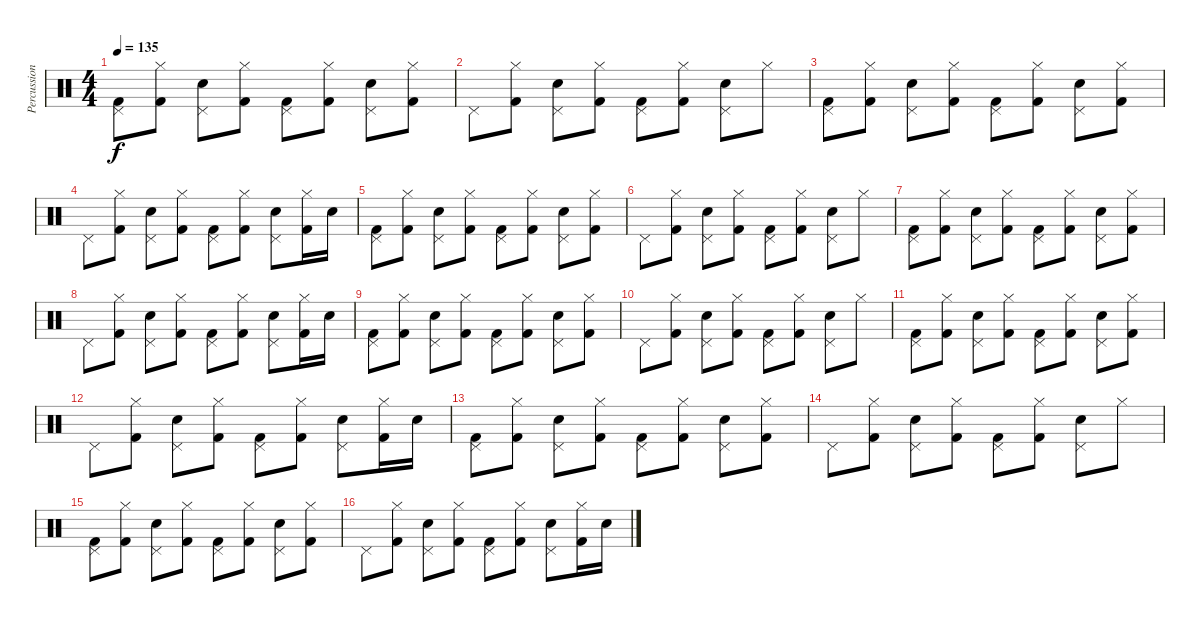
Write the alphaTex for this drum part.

\track ("Percussions" "Percussion") {instrument percussion}
\staff {score}
\articulation defaults
\ts (4 4)
\tempo 135
\clef neutral
\ks c
("Pedal Hi-Hat (hit)" "Kick (hit) 2").8{dy f} ("Hi-Hat (closed)" "Kick (hit) 2").8 ("Pedal Hi-Hat (hit)" "Electric Snare (hit)").8 ("Hi-Hat (closed)" "Kick (hit) 2").8 ("Pedal Hi-Hat (hit)" "Kick (hit) 2").8 ("Hi-Hat (closed)" "Kick (hit) 2").8 ("Pedal Hi-Hat (hit)" "Electric Snare (hit)").8 ("Hi-Hat (closed)" "Kick (hit) 2").8 |
"Pedal Hi-Hat (hit)".8 ("Hi-Hat (closed)" "Kick (hit) 2").8 ("Pedal Hi-Hat (hit)" "Electric Snare (hit)").8 ("Hi-Hat (closed)" "Kick (hit) 2").8 ("Pedal Hi-Hat (hit)" "Kick (hit) 2").8 ("Hi-Hat (closed)" "Kick (hit) 2").8 ("Pedal Hi-Hat (hit)" "Electric Snare (hit)").8 "Hi-Hat (closed)".8 |
("Pedal Hi-Hat (hit)" "Kick (hit) 2").8 ("Hi-Hat (closed)" "Kick (hit) 2").8 ("Pedal Hi-Hat (hit)" "Electric Snare (hit)").8 ("Hi-Hat (closed)" "Kick (hit) 2").8 ("Pedal Hi-Hat (hit)" "Kick (hit) 2").8 ("Hi-Hat (closed)" "Kick (hit) 2").8 ("Pedal Hi-Hat (hit)" "Electric Snare (hit)").8 ("Hi-Hat (closed)" "Kick (hit) 2").8 |
"Pedal Hi-Hat (hit)".8 ("Hi-Hat (closed)" "Kick (hit) 2").8 ("Pedal Hi-Hat (hit)" "Electric Snare (hit)").8 ("Hi-Hat (closed)" "Kick (hit) 2").8 ("Pedal Hi-Hat (hit)" "Kick (hit) 2").8 ("Hi-Hat (closed)" "Kick (hit) 2").8 ("Pedal Hi-Hat (hit)" "Electric Snare (hit)").8 ("Hi-Hat (closed)" "Kick (hit) 2").16 "Electric Snare (hit)".16 |
("Pedal Hi-Hat (hit)" "Kick (hit) 2").8 ("Hi-Hat (closed)" "Kick (hit) 2").8 ("Pedal Hi-Hat (hit)" "Electric Snare (hit)").8 ("Hi-Hat (closed)" "Kick (hit) 2").8 ("Pedal Hi-Hat (hit)" "Kick (hit) 2").8 ("Hi-Hat (closed)" "Kick (hit) 2").8 ("Pedal Hi-Hat (hit)" "Electric Snare (hit)").8 ("Hi-Hat (closed)" "Kick (hit) 2").8 |
"Pedal Hi-Hat (hit)".8 ("Hi-Hat (closed)" "Kick (hit) 2").8 ("Pedal Hi-Hat (hit)" "Electric Snare (hit)").8 ("Hi-Hat (closed)" "Kick (hit) 2").8 ("Pedal Hi-Hat (hit)" "Kick (hit) 2").8 ("Hi-Hat (closed)" "Kick (hit) 2").8 ("Pedal Hi-Hat (hit)" "Electric Snare (hit)").8 "Hi-Hat (closed)".8 |
("Pedal Hi-Hat (hit)" "Kick (hit) 2").8 ("Hi-Hat (closed)" "Kick (hit) 2").8 ("Pedal Hi-Hat (hit)" "Electric Snare (hit)").8 ("Hi-Hat (closed)" "Kick (hit) 2").8 ("Pedal Hi-Hat (hit)" "Kick (hit) 2").8 ("Hi-Hat (closed)" "Kick (hit) 2").8 ("Pedal Hi-Hat (hit)" "Electric Snare (hit)").8 ("Hi-Hat (closed)" "Kick (hit) 2").8 |
"Pedal Hi-Hat (hit)".8 ("Hi-Hat (closed)" "Kick (hit) 2").8 ("Pedal Hi-Hat (hit)" "Electric Snare (hit)").8 ("Hi-Hat (closed)" "Kick (hit) 2").8 ("Pedal Hi-Hat (hit)" "Kick (hit) 2").8 ("Hi-Hat (closed)" "Kick (hit) 2").8 ("Pedal Hi-Hat (hit)" "Electric Snare (hit)").8 ("Hi-Hat (closed)" "Kick (hit) 2").16 "Electric Snare (hit)".16 |
("Pedal Hi-Hat (hit)" "Kick (hit) 2").8 ("Hi-Hat (closed)" "Kick (hit) 2").8 ("Pedal Hi-Hat (hit)" "Electric Snare (hit)").8 ("Hi-Hat (closed)" "Kick (hit) 2").8 ("Pedal Hi-Hat (hit)" "Kick (hit) 2").8 ("Hi-Hat (closed)" "Kick (hit) 2").8 ("Pedal Hi-Hat (hit)" "Electric Snare (hit)").8 ("Hi-Hat (closed)" "Kick (hit) 2").8 |
"Pedal Hi-Hat (hit)".8 ("Hi-Hat (closed)" "Kick (hit) 2").8 ("Pedal Hi-Hat (hit)" "Electric Snare (hit)").8 ("Hi-Hat (closed)" "Kick (hit) 2").8 ("Pedal Hi-Hat (hit)" "Kick (hit) 2").8 ("Hi-Hat (closed)" "Kick (hit) 2").8 ("Pedal Hi-Hat (hit)" "Electric Snare (hit)").8 "Hi-Hat (closed)".8 |
("Pedal Hi-Hat (hit)" "Kick (hit) 2").8 ("Hi-Hat (closed)" "Kick (hit) 2").8 ("Pedal Hi-Hat (hit)" "Electric Snare (hit)").8 ("Hi-Hat (closed)" "Kick (hit) 2").8 ("Pedal Hi-Hat (hit)" "Kick (hit) 2").8 ("Hi-Hat (closed)" "Kick (hit) 2").8 ("Pedal Hi-Hat (hit)" "Electric Snare (hit)").8 ("Hi-Hat (closed)" "Kick (hit) 2").8 |
"Pedal Hi-Hat (hit)".8 ("Hi-Hat (closed)" "Kick (hit) 2").8 ("Pedal Hi-Hat (hit)" "Electric Snare (hit)").8 ("Hi-Hat (closed)" "Kick (hit) 2").8 ("Pedal Hi-Hat (hit)" "Kick (hit) 2").8 ("Hi-Hat (closed)" "Kick (hit) 2").8 ("Pedal Hi-Hat (hit)" "Electric Snare (hit)").8 ("Hi-Hat (closed)" "Kick (hit) 2").16 "Electric Snare (hit)".16 |
("Pedal Hi-Hat (hit)" "Kick (hit) 2").8 ("Hi-Hat (closed)" "Kick (hit) 2").8 ("Pedal Hi-Hat (hit)" "Electric Snare (hit)").8 ("Hi-Hat (closed)" "Kick (hit) 2").8 ("Pedal Hi-Hat (hit)" "Kick (hit) 2").8 ("Hi-Hat (closed)" "Kick (hit) 2").8 ("Pedal Hi-Hat (hit)" "Electric Snare (hit)").8 ("Hi-Hat (closed)" "Kick (hit) 2").8 |
"Pedal Hi-Hat (hit)".8 ("Hi-Hat (closed)" "Kick (hit) 2").8 ("Pedal Hi-Hat (hit)" "Electric Snare (hit)").8 ("Hi-Hat (closed)" "Kick (hit) 2").8 ("Pedal Hi-Hat (hit)" "Kick (hit) 2").8 ("Hi-Hat (closed)" "Kick (hit) 2").8 ("Pedal Hi-Hat (hit)" "Electric Snare (hit)").8 "Hi-Hat (closed)".8 |
("Pedal Hi-Hat (hit)" "Kick (hit) 2").8 ("Hi-Hat (closed)" "Kick (hit) 2").8 ("Pedal Hi-Hat (hit)" "Electric Snare (hit)").8 ("Hi-Hat (closed)" "Kick (hit) 2").8 ("Pedal Hi-Hat (hit)" "Kick (hit) 2").8 ("Hi-Hat (closed)" "Kick (hit) 2").8 ("Pedal Hi-Hat (hit)" "Electric Snare (hit)").8 ("Hi-Hat (closed)" "Kick (hit) 2").8 |
"Pedal Hi-Hat (hit)".8 ("Hi-Hat (closed)" "Kick (hit) 2").8 ("Pedal Hi-Hat (hit)" "Electric Snare (hit)").8 ("Hi-Hat (closed)" "Kick (hit) 2").8 ("Pedal Hi-Hat (hit)" "Kick (hit) 2").8 ("Hi-Hat (closed)" "Kick (hit) 2").8 ("Pedal Hi-Hat (hit)" "Electric Snare (hit)").8 ("Hi-Hat (closed)" "Kick (hit) 2").16 "Electric Snare (hit)".16
